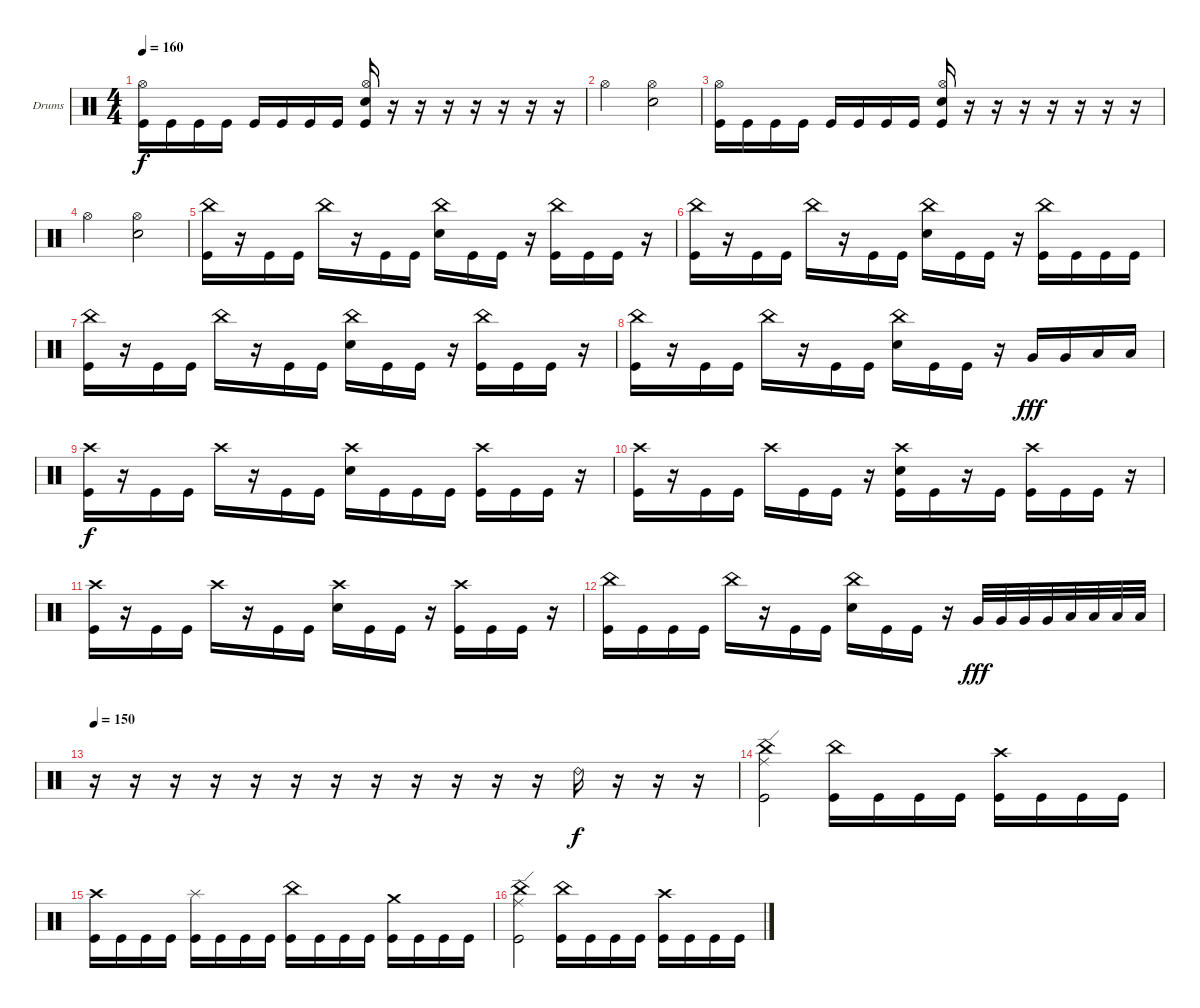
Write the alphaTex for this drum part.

\defaultSystemsLayout 4
\bracketExtendMode groupsimilarinstruments
\firstSystemTrackNameOrientation horizontal
\otherSystemsTrackNameOrientation horizontal
\track ("Drumkit" "Drums") {instrument percussion}
\staff {score}
\articulation defaults
\ts (4 4)
\tempo 160
\clef neutral
\ks c
("Kick (hit)" "Hi-Hat (open)").16{dy f} "Kick (hit)".16 "Kick (hit)".16 "Kick (hit)".16 "Kick (hit)".16 "Kick (hit)".16 "Kick (hit)".16 "Kick (hit)".16 ("Kick (hit)" "Hi-Hat (open)" "Snare (hit) 2").16 r.16 r.16 r.16 r.16 r.16 r.16 r.16 |
"Hi-Hat (open)".2 ("Hi-Hat (open)" "Snare (hit) 2").2 |
("Kick (hit)" "Hi-Hat (open)").16 "Kick (hit)".16 "Kick (hit)".16 "Kick (hit)".16 "Kick (hit)".16 "Kick (hit)".16 "Kick (hit)".16 "Kick (hit)".16 ("Kick (hit)" "Hi-Hat (open)" "Snare (hit) 2").16 r.16 r.16 r.16 r.16 r.16 r.16 r.16 |
"Hi-Hat (open)".2 ("Hi-Hat (open)" "Snare (hit) 2").2 |
("Kick (hit)" "China (hit)").16 r.16 "Kick (hit)".16 "Kick (hit)".16 "China (hit)".16 r.16 "Kick (hit)".16 "Kick (hit)".16 ("China (hit)" "Snare (hit) 2").16 "Kick (hit)".16 "Kick (hit)".16 r.16 ("Kick (hit)" "China (hit)").16 "Kick (hit)".16 "Kick (hit)".16 r.16 |
("Kick (hit)" "China (hit)").16 r.16 "Kick (hit)".16 "Kick (hit)".16 "China (hit)".16 r.16 "Kick (hit)".16 "Kick (hit)".16 ("China (hit)" "Snare (hit) 2").16 "Kick (hit)".16 "Kick (hit)".16 r.16 ("Kick (hit)" "China (hit)").16 "Kick (hit)".16 "Kick (hit)".16 "Kick (hit)".16 |
("Kick (hit)" "China (hit)").16 r.16 "Kick (hit)".16 "Kick (hit)".16 "China (hit)".16 r.16 "Kick (hit)".16 "Kick (hit)".16 ("China (hit)" "Snare (hit) 2").16 "Kick (hit)".16 "Kick (hit)".16 r.16 ("Kick (hit)" "China (hit)").16 "Kick (hit)".16 "Kick (hit)".16 r.16 |
("Kick (hit)" "China (hit)").16 r.16 "Kick (hit)".16 "Kick (hit)".16 "China (hit)".16 r.16 "Kick (hit)".16 "Kick (hit)".16 ("China (hit)" "Snare (hit) 2").16 "Kick (hit)".16 "Kick (hit)".16 r.16 "Very Low Tom (hit)".16{dy fff} "Very Low Tom (hit)".16 "Low Tom (hit)".16 "Low Tom (hit)".16 |
("Kick (hit)" "Crash high (hit)").16{dy f} r.16 "Kick (hit)".16 "Kick (hit)".16 "Crash high (hit)".16 r.16 "Kick (hit)".16 "Kick (hit)".16 ("Snare (hit) 2" "Crash high (hit)").16 "Kick (hit)".16 "Kick (hit)".16 "Kick (hit)".16 ("Kick (hit)" "Crash high (hit)").16 "Kick (hit)".16 "Kick (hit)".16 r.16 |
("Kick (hit)" "Crash high (hit)").16 r.16 "Kick (hit)".16 "Kick (hit)".16 "Crash high (hit)".16 "Kick (hit)".16 "Kick (hit)".16 r.16 ("Snare (hit) 2" "Crash high (hit)" "Kick (hit)").16 "Kick (hit)".16 r.16 "Kick (hit)".16 ("Kick (hit)" "Crash high (hit)").16 "Kick (hit)".16 "Kick (hit)".16 r.16 |
("Kick (hit)" "Crash high (hit)").16 r.16 "Kick (hit)".16 "Kick (hit)".16 "Crash high (hit)".16 r.16 "Kick (hit)".16 "Kick (hit)".16 ("Snare (hit) 2" "Crash high (hit)").16 "Kick (hit)".16 "Kick (hit)".16 r.16 ("Kick (hit)" "Crash high (hit)").16 "Kick (hit)".16 "Kick (hit)".16 r.16 |
("Kick (hit)" "China (hit)").16 "Kick (hit)".16 "Kick (hit)".16 "Kick (hit)".16 "China (hit)".16 r.16 "Kick (hit)".16 "Kick (hit)".16 ("China (hit)" "Snare (hit) 2").16 "Kick (hit)".16 "Kick (hit)".16 r.16 "Very Low Tom (hit)".32{dy fff} "Very Low Tom (hit)".32 "Very Low Tom (hit)".32 "Very Low Tom (hit)".32 "Low Tom (hit)".32 "Low Tom (hit)".32 "Low Tom (hit)".32 "Low Tom (hit)".32 |
\tempo 150
r.16 r.16 r.16 r.16 r.16 r.16 r.16 r.16 r.16 r.16 r.16 r.16 "Ride (bell) 2".16{dy f} r.16 r.16 r.16 |
("Kick (hit)" "Ride (edge)" "China (hit)").2 ("Kick (hit)" "China (hit)").16 "Kick (hit)".16 "Kick (hit)".16 "Kick (hit)".16 ("Kick (hit)" "Crash high (hit)").16 "Kick (hit)".16 "Kick (hit)".16 "Kick (hit)".16 |
("Kick (hit)" "Crash high (hit)").16 "Kick (hit)".16 "Kick (hit)".16 "Kick (hit)".16 ("Kick (hit)" "Splash (hit)").16 "Kick (hit)".16 "Kick (hit)".16 "Kick (hit)".16 ("Kick (hit)" "China (hit)").16 "Kick (hit)".16 "Kick (hit)".16 "Kick (hit)".16 ("Kick (hit)" "Crash medium (hit)").16 "Kick (hit)".16 "Kick (hit)".16 "Kick (hit)".16 |
("Kick (hit)" "Ride (edge)" "China (hit)").2 ("Kick (hit)" "China (hit)").16 "Kick (hit)".16 "Kick (hit)".16 "Kick (hit)".16 ("Kick (hit)" "Crash high (hit)").16 "Kick (hit)".16 "Kick (hit)".16 "Kick (hit)".16
